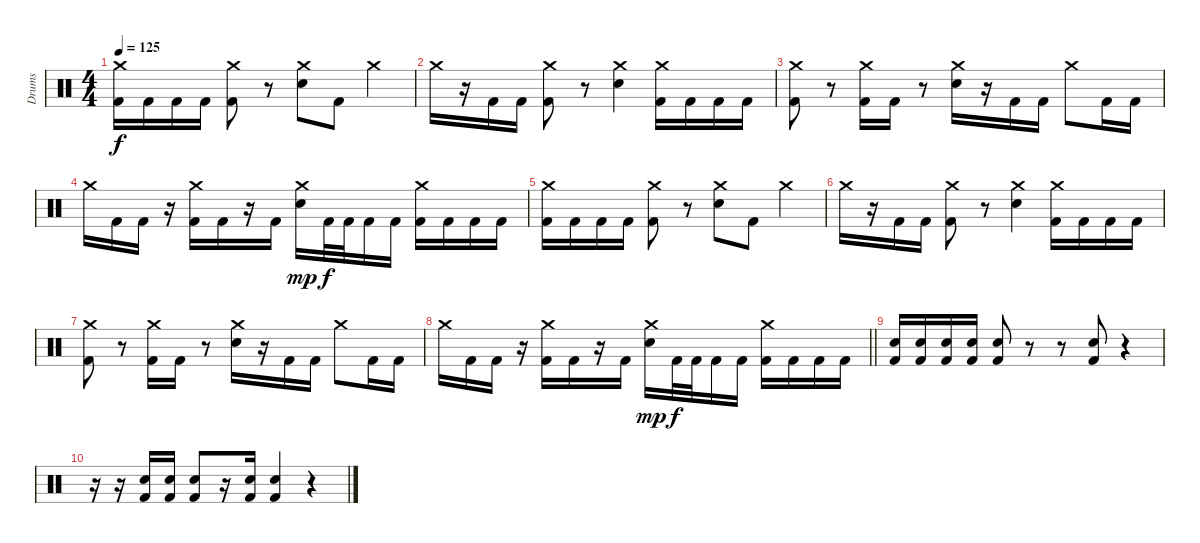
\track ("Drums" "Drums") {instrument percussion}
\staff {score}
\articulation defaults
\ts (4 4)
\tempo 125
\clef neutral
\ks c
("Crash medium (hit)" "Kick (hit) 2").16{dy f} "Kick (hit) 2".16 "Kick (hit) 2".16 "Kick (hit) 2".16 ("Crash medium (hit)" "Kick (hit) 2").8 r.8 ("Crash medium (hit)" "Snare (hit) 2").8 "Kick (hit) 2".8 "Crash medium (hit)".4 |
"Crash medium (hit)".16 r.16 "Kick (hit) 2".16 "Kick (hit) 2".16 ("Crash medium (hit)" "Kick (hit) 2").8 r.8 ("Crash medium (hit)" "Snare (hit) 2").4 ("Crash medium (hit)" "Kick (hit) 2").16 "Kick (hit) 2".16 "Kick (hit) 2".16 "Kick (hit) 2".16 |
("Crash medium (hit)" "Kick (hit) 2").8 r.8 ("Crash medium (hit)" "Kick (hit) 2").16 "Kick (hit) 2".16 r.8 ("Crash medium (hit)" "Snare (hit) 2").16 r.16 "Kick (hit) 2".16 "Kick (hit) 2".16 "Crash medium (hit)".8 "Kick (hit) 2".16 "Kick (hit) 2".16 |
"Crash medium (hit)".16 "Kick (hit) 2".16 "Kick (hit) 2".16 r.16 ("Crash medium (hit)" "Kick (hit) 2").16 "Kick (hit) 2".16 r.16 "Kick (hit) 2".16 ("Crash medium (hit)" "Snare (hit) 2").16{dy mp} "Kick (hit) 2".32{dy f} "Kick (hit) 2".32 "Kick (hit) 2".16 "Kick (hit) 2".16 ("Crash medium (hit)" "Kick (hit) 2").16 "Kick (hit) 2".16 "Kick (hit) 2".16 "Kick (hit) 2".16 |
("Crash medium (hit)" "Kick (hit) 2").16 "Kick (hit) 2".16 "Kick (hit) 2".16 "Kick (hit) 2".16 ("Crash medium (hit)" "Kick (hit) 2").8 r.8 ("Crash medium (hit)" "Snare (hit) 2").8 "Kick (hit) 2".8 "Crash medium (hit)".4 |
"Crash medium (hit)".16 r.16 "Kick (hit) 2".16 "Kick (hit) 2".16 ("Crash medium (hit)" "Kick (hit) 2").8 r.8 ("Crash medium (hit)" "Snare (hit) 2").4 ("Crash medium (hit)" "Kick (hit) 2").16 "Kick (hit) 2".16 "Kick (hit) 2".16 "Kick (hit) 2".16 |
("Crash medium (hit)" "Kick (hit) 2").8 r.8 ("Crash medium (hit)" "Kick (hit) 2").16 "Kick (hit) 2".16 r.8 ("Crash medium (hit)" "Snare (hit) 2").16 r.16 "Kick (hit) 2".16 "Kick (hit) 2".16 "Crash medium (hit)".8 "Kick (hit) 2".16 "Kick (hit) 2".16 |
\barLineRight lightlight "Crash medium (hit)".16 "Kick (hit) 2".16 "Kick (hit) 2".16
r.16 ("Crash medium (hit)" "Kick (hit) 2").16 "Kick (hit) 2".16 r.16 "Kick (hit) 2".16 ("Crash medium (hit)" "Snare (hit) 2").16{dy mp} "Kick (hit) 2".32{dy f} "Kick (hit) 2".32 "Kick (hit) 2".16 "Kick (hit) 2".16 ("Crash medium (hit)" "Kick (hit) 2").16 "Kick (hit) 2".16 "Kick (hit) 2".16 "Kick (hit) 2".16 |
\section ("" "")
("Snare (hit) 2" "Kick (hit) 2").16 ("Snare (hit) 2" "Kick (hit) 2").16 ("Snare (hit) 2" "Kick (hit) 2").16 ("Snare (hit) 2" "Kick (hit) 2").16 ("Snare (hit) 2" "Kick (hit) 2").8 r.8 r.8 ("Snare (hit) 2" "Kick (hit) 2").8 r.4 |
r.16 r.16 ("Snare (hit) 2" "Kick (hit) 2").16 ("Snare (hit) 2" "Kick (hit) 2").16 ("Snare (hit) 2" "Kick (hit) 2").8 r.16 ("Snare (hit) 2" "Kick (hit) 2").16 ("Snare (hit) 2" "Kick (hit) 2").4 r.4
